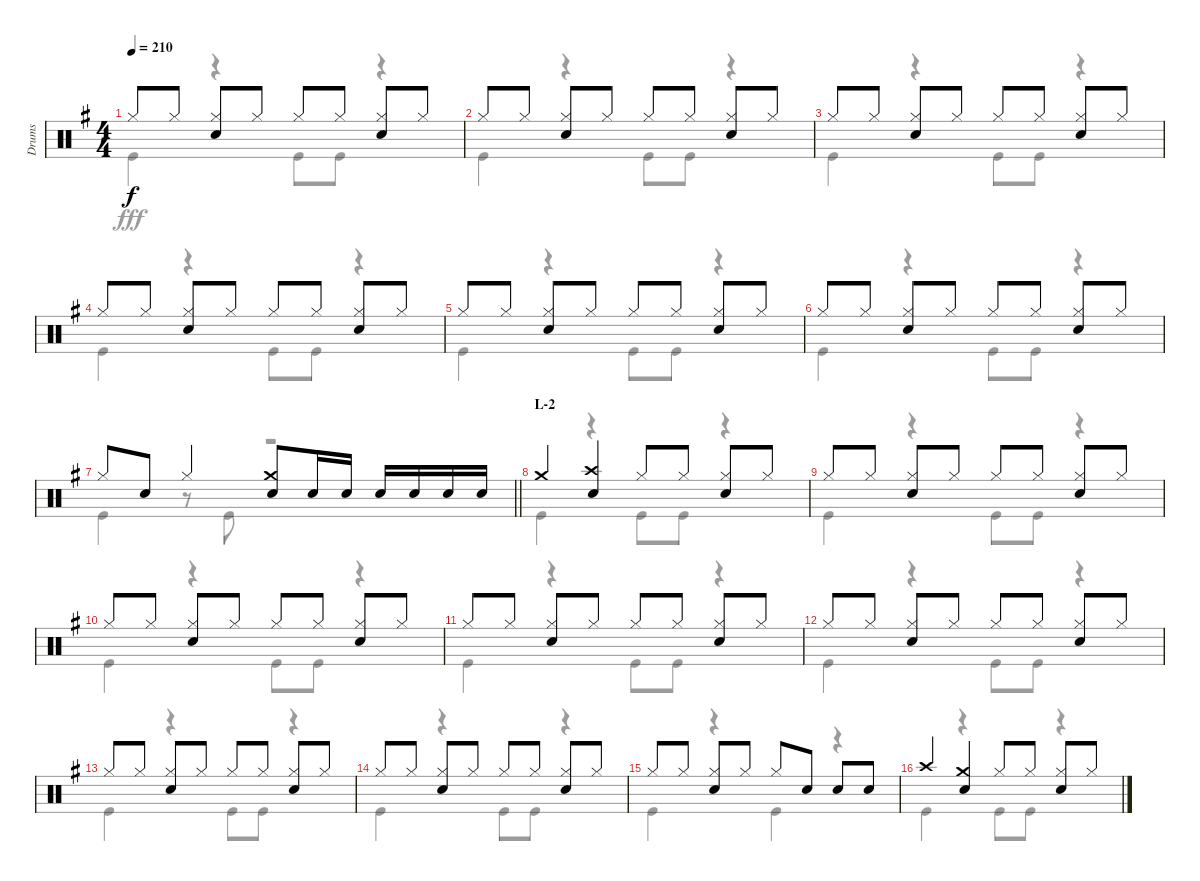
\track ("Drums" "Drums") {instrument percussion}
\staff {score}
\articulation defaults
\voice
\ts (4 4)
\tempo 210
\clef neutral
\ks g "Hi-Hat (closed)".8{dy f} "Hi-Hat (closed)".8
("Hi-Hat (closed)" "Snare (hit) 2").8 "Hi-Hat (closed)".8 "Hi-Hat (closed)".8 "Hi-Hat (closed)".8 ("Hi-Hat (closed)" "Snare (hit) 2").8 "Hi-Hat (closed)".8 |
"Hi-Hat (closed)".8 "Hi-Hat (closed)".8 ("Hi-Hat (closed)" "Snare (hit) 2").8 "Hi-Hat (closed)".8 "Hi-Hat (closed)".8 "Hi-Hat (closed)".8 ("Hi-Hat (closed)" "Snare (hit) 2").8 "Hi-Hat (closed)".8 |
"Hi-Hat (closed)".8 "Hi-Hat (closed)".8 ("Hi-Hat (closed)" "Snare (hit) 2").8 "Hi-Hat (closed)".8 "Hi-Hat (closed)".8 "Hi-Hat (closed)".8 ("Hi-Hat (closed)" "Snare (hit) 2").8 "Hi-Hat (closed)".8 |
"Hi-Hat (closed)".8 "Hi-Hat (closed)".8 ("Hi-Hat (closed)" "Snare (hit) 2").8 "Hi-Hat (closed)".8 "Hi-Hat (closed)".8 "Hi-Hat (closed)".8 ("Hi-Hat (closed)" "Snare (hit) 2").8 "Hi-Hat (closed)".8 |
"Hi-Hat (closed)".8 "Hi-Hat (closed)".8 ("Hi-Hat (closed)" "Snare (hit) 2").8 "Hi-Hat (closed)".8 "Hi-Hat (closed)".8 "Hi-Hat (closed)".8 ("Hi-Hat (closed)" "Snare (hit) 2").8 "Hi-Hat (closed)".8 |
"Hi-Hat (closed)".8 "Hi-Hat (closed)".8 ("Hi-Hat (closed)" "Snare (hit) 2").8 "Hi-Hat (closed)".8 "Hi-Hat (closed)".8 "Hi-Hat (closed)".8 ("Hi-Hat (closed)" "Snare (hit) 2").8 "Hi-Hat (closed)".8 |
\barLineRight lightlight "Hi-Hat (closed)".8 "Snare (hit) 2".8 "Hi-Hat (closed)".4
("Crash medium (hit)" "Snare (hit) 2").8 "Snare (hit) 2".16 "Snare (hit) 2".16 "Snare (hit) 2".16 "Snare (hit) 2".16 "Snare (hit) 2".16 "Snare (hit) 2".16 |
\section ("" "L-2")
"Crash medium (hit)".4 ("Crash high (hit)" "Snare (hit) 2").4 "Hi-Hat (closed)".8 "Hi-Hat (closed)".8 ("Hi-Hat (closed)" "Snare (hit) 2").8 "Hi-Hat (closed)".8 |
"Hi-Hat (closed)".8 "Hi-Hat (closed)".8 ("Hi-Hat (closed)" "Snare (hit) 2").8 "Hi-Hat (closed)".8 "Hi-Hat (closed)".8 "Hi-Hat (closed)".8 ("Hi-Hat (closed)" "Snare (hit) 2").8 "Hi-Hat (closed)".8 |
"Hi-Hat (closed)".8 "Hi-Hat (closed)".8 ("Hi-Hat (closed)" "Snare (hit) 2").8 "Hi-Hat (closed)".8 "Hi-Hat (closed)".8 "Hi-Hat (closed)".8 ("Hi-Hat (closed)" "Snare (hit) 2").8 "Hi-Hat (closed)".8 |
"Hi-Hat (closed)".8 "Hi-Hat (closed)".8 ("Hi-Hat (closed)" "Snare (hit) 2").8 "Hi-Hat (closed)".8 "Hi-Hat (closed)".8 "Hi-Hat (closed)".8 ("Hi-Hat (closed)" "Snare (hit) 2").8 "Hi-Hat (closed)".8 |
"Hi-Hat (closed)".8 "Hi-Hat (closed)".8 ("Hi-Hat (closed)" "Snare (hit) 2").8 "Hi-Hat (closed)".8 "Hi-Hat (closed)".8 "Hi-Hat (closed)".8 ("Hi-Hat (closed)" "Snare (hit) 2").8 "Hi-Hat (closed)".8 |
"Hi-Hat (closed)".8 "Hi-Hat (closed)".8 ("Hi-Hat (closed)" "Snare (hit) 2").8 "Hi-Hat (closed)".8 "Hi-Hat (closed)".8 "Hi-Hat (closed)".8 ("Hi-Hat (closed)" "Snare (hit) 2").8 "Hi-Hat (closed)".8 |
"Hi-Hat (closed)".8 "Hi-Hat (closed)".8 ("Hi-Hat (closed)" "Snare (hit) 2").8 "Hi-Hat (closed)".8 "Hi-Hat (closed)".8 "Hi-Hat (closed)".8 ("Hi-Hat (closed)" "Snare (hit) 2").8 "Hi-Hat (closed)".8 |
"Hi-Hat (closed)".8 "Hi-Hat (closed)".8 ("Hi-Hat (closed)" "Snare (hit) 2").8 "Hi-Hat (closed)".8 "Hi-Hat (closed)".8 "Snare (hit) 2".8 "Snare (hit) 2".8 "Snare (hit) 2".8 |
"Crash high (hit)".4 ("Crash medium (hit)" "Snare (hit) 2").4 "Hi-Hat (closed)".8 "Hi-Hat (closed)".8 ("Hi-Hat (closed)" "Snare (hit) 2").8 "Hi-Hat (closed)".8
\voice
\clef neutral
\ottava regular
\simile none
\ks g "Kick (hit)".4{dy fff}
r.4 "Kick (hit)".8 "Kick (hit)".8 r.4 |
"Kick (hit)".4 r.4 "Kick (hit)".8 "Kick (hit)".8 r.4 |
"Kick (hit)".4 r.4 "Kick (hit)".8 "Kick (hit)".8 r.4 |
"Kick (hit)".4 r.4 "Kick (hit)".8 "Kick (hit)".8 r.4 |
"Kick (hit)".4 r.4 "Kick (hit)".8 "Kick (hit)".8 r.4 |
"Kick (hit)".4 r.4 "Kick (hit)".8 "Kick (hit)".8 r.4 |
\barLineRight lightlight "Kick (hit)".4
r.8 "Kick (hit)".8 r.2 |
"Kick (hit)".4 r.4 "Kick (hit)".8 "Kick (hit)".8 r.4 |
"Kick (hit)".4 r.4 "Kick (hit)".8 "Kick (hit)".8 r.4 |
"Kick (hit)".4 r.4 "Kick (hit)".8 "Kick (hit)".8 r.4 |
"Kick (hit)".4 r.4 "Kick (hit)".8 "Kick (hit)".8 r.4 |
"Kick (hit)".4 r.4 "Kick (hit)".8 "Kick (hit)".8 r.4 |
"Kick (hit)".4 r.4 "Kick (hit)".8 "Kick (hit)".8 r.4 |
"Kick (hit)".4 r.4 "Kick (hit)".8 "Kick (hit)".8 r.4 |
"Kick (hit)".4 r.4 "Kick (hit)".4 r.4 |
"Kick (hit)".4 r.4 "Kick (hit)".8 "Kick (hit)".8 r.4
